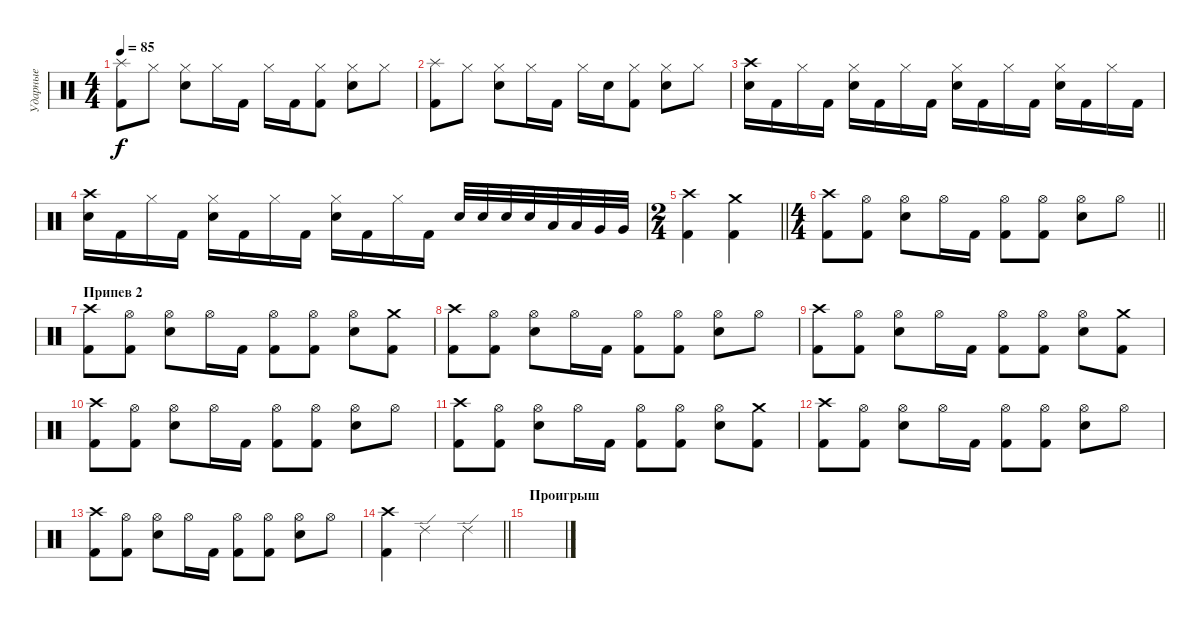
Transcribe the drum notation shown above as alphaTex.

\track ("Ударные" "Ударные") {instrument percussion}
\staff {score}
\articulation defaults
\ts (4 4)
\tempo 85
\clef neutral
\ks c
("Splash (hit)" "Kick (hit) 2").8{dy f} "Hi-Hat (closed)".8 ("Hi-Hat (closed)" "Snare (hit) 2").8 "Hi-Hat (closed)".16 "Kick (hit) 2".16 "Hi-Hat (closed)".16 "Kick (hit) 2".16 ("Hi-Hat (closed)" "Kick (hit) 2").8 ("Hi-Hat (closed)" "Snare (hit) 2").8 "Hi-Hat (closed)".8 |
("Splash (hit)" "Kick (hit) 2").8 "Hi-Hat (closed)".8 ("Hi-Hat (closed)" "Snare (hit) 2").8 "Hi-Hat (closed)".16 "Kick (hit) 2".16 "Hi-Hat (closed)".16 "Snare (hit) 2".16 ("Hi-Hat (closed)" "Kick (hit) 2").8 ("Hi-Hat (closed)" "Snare (hit) 2").8 "Hi-Hat (closed)".8 |
("Crash high (hit)" "Snare (hit) 2").16 "Kick (hit) 2".16 "Hi-Hat (closed)".16 "Kick (hit) 2".16 ("Hi-Hat (closed)" "Snare (hit) 2").16 "Kick (hit) 2".16 "Hi-Hat (closed)".16 "Kick (hit) 2".16 ("Hi-Hat (closed)" "Snare (hit) 2").16 "Kick (hit) 2".16 "Hi-Hat (closed)".16 "Kick (hit) 2".16 ("Hi-Hat (closed)" "Snare (hit) 2").16 "Kick (hit) 2".16 "Hi-Hat (closed)".16 "Kick (hit) 2".16 |
("Crash high (hit)" "Snare (hit) 2").16 "Kick (hit) 2".16 "Hi-Hat (closed)".16 "Kick (hit) 2".16 ("Hi-Hat (closed)" "Snare (hit) 2").16 "Kick (hit) 2".16 "Hi-Hat (closed)".16 "Kick (hit) 2".16 ("Hi-Hat (closed)" "Snare (hit) 2").16 "Kick (hit) 2".16 "Hi-Hat (closed)".16 "Kick (hit) 2".16 "Snare (hit) 2".32 "Snare (hit) 2".32 "Snare (hit) 2".32 "Snare (hit) 2".32 "Low Tom (hit)".32 "Low Tom (hit)".32 "Very Low Tom (hit)".32 "Very Low Tom (hit)".32 |
\ts (2 4)
\barLineRight lightlight
("Crash high (hit)" "Kick (hit) 2").4 ("Crash medium (hit)" "Kick (hit) 2").4 |
\ts (4 4)
\barLineRight lightlight
("Crash high (hit)" "Kick (hit) 2").8 ("Hi-Hat (open)" "Kick (hit) 2").8 ("Hi-Hat (open)" "Snare (hit) 2").8 "Hi-Hat (open)".16 "Kick (hit) 2".16 ("Hi-Hat (open)" "Kick (hit) 2").8 ("Hi-Hat (open)" "Kick (hit) 2").8 ("Hi-Hat (open)" "Snare (hit) 2").8 "Hi-Hat (open)".8 |
\section ("" "Припев 2")
("Crash high (hit)" "Kick (hit) 2").8 ("Hi-Hat (open)" "Kick (hit) 2").8 ("Hi-Hat (open)" "Snare (hit) 2").8 "Hi-Hat (open)".16 "Kick (hit) 2".16 ("Hi-Hat (open)" "Kick (hit) 2").8 ("Hi-Hat (open)" "Kick (hit) 2").8 ("Hi-Hat (open)" "Snare (hit) 2").8 ("Crash medium (hit)" "Kick (hit) 2").8 |
("Crash high (hit)" "Kick (hit) 2").8 ("Hi-Hat (open)" "Kick (hit) 2").8 ("Hi-Hat (open)" "Snare (hit) 2").8 "Hi-Hat (open)".16 "Kick (hit) 2".16 ("Hi-Hat (open)" "Kick (hit) 2").8 ("Hi-Hat (open)" "Kick (hit) 2").8 ("Hi-Hat (open)" "Snare (hit) 2").8 "Hi-Hat (open)".8 |
("Crash high (hit)" "Kick (hit) 2").8 ("Hi-Hat (open)" "Kick (hit) 2").8 ("Hi-Hat (open)" "Snare (hit) 2").8 "Hi-Hat (open)".16 "Kick (hit) 2".16 ("Hi-Hat (open)" "Kick (hit) 2").8 ("Hi-Hat (open)" "Kick (hit) 2").8 ("Hi-Hat (open)" "Snare (hit) 2").8 ("Crash medium (hit)" "Kick (hit) 2").8 |
("Crash high (hit)" "Kick (hit) 2").8 ("Hi-Hat (open)" "Kick (hit) 2").8 ("Hi-Hat (open)" "Snare (hit) 2").8 "Hi-Hat (open)".16 "Kick (hit) 2".16 ("Hi-Hat (open)" "Kick (hit) 2").8 ("Hi-Hat (open)" "Kick (hit) 2").8 ("Hi-Hat (open)" "Snare (hit) 2").8 "Hi-Hat (open)".8 |
("Crash high (hit)" "Kick (hit) 2").8 ("Hi-Hat (open)" "Kick (hit) 2").8 ("Hi-Hat (open)" "Snare (hit) 2").8 "Hi-Hat (open)".16 "Kick (hit) 2".16 ("Hi-Hat (open)" "Kick (hit) 2").8 ("Hi-Hat (open)" "Kick (hit) 2").8 ("Hi-Hat (open)" "Snare (hit) 2").8 ("Crash medium (hit)" "Kick (hit) 2").8 |
("Crash high (hit)" "Kick (hit) 2").8 ("Hi-Hat (open)" "Kick (hit) 2").8 ("Hi-Hat (open)" "Snare (hit) 2").8 "Hi-Hat (open)".16 "Kick (hit) 2".16 ("Hi-Hat (open)" "Kick (hit) 2").8 ("Hi-Hat (open)" "Kick (hit) 2").8 ("Hi-Hat (open)" "Snare (hit) 2").8 "Hi-Hat (open)".8 |
("Crash high (hit)" "Kick (hit) 2").8 ("Hi-Hat (open)" "Kick (hit) 2").8 ("Hi-Hat (open)" "Snare (hit) 2").8 "Hi-Hat (open)".16 "Kick (hit) 2".16 ("Hi-Hat (open)" "Kick (hit) 2").8 ("Hi-Hat (open)" "Kick (hit) 2").8 ("Hi-Hat (open)" "Snare (hit) 2").8 "Hi-Hat (open)".8 |
\barLineRight lightlight
("Crash high (hit)" "Kick (hit) 2").4 "Ride (edge) 2".2 "Ride (edge) 2".4 |
\section ("" "Проигрыш")
